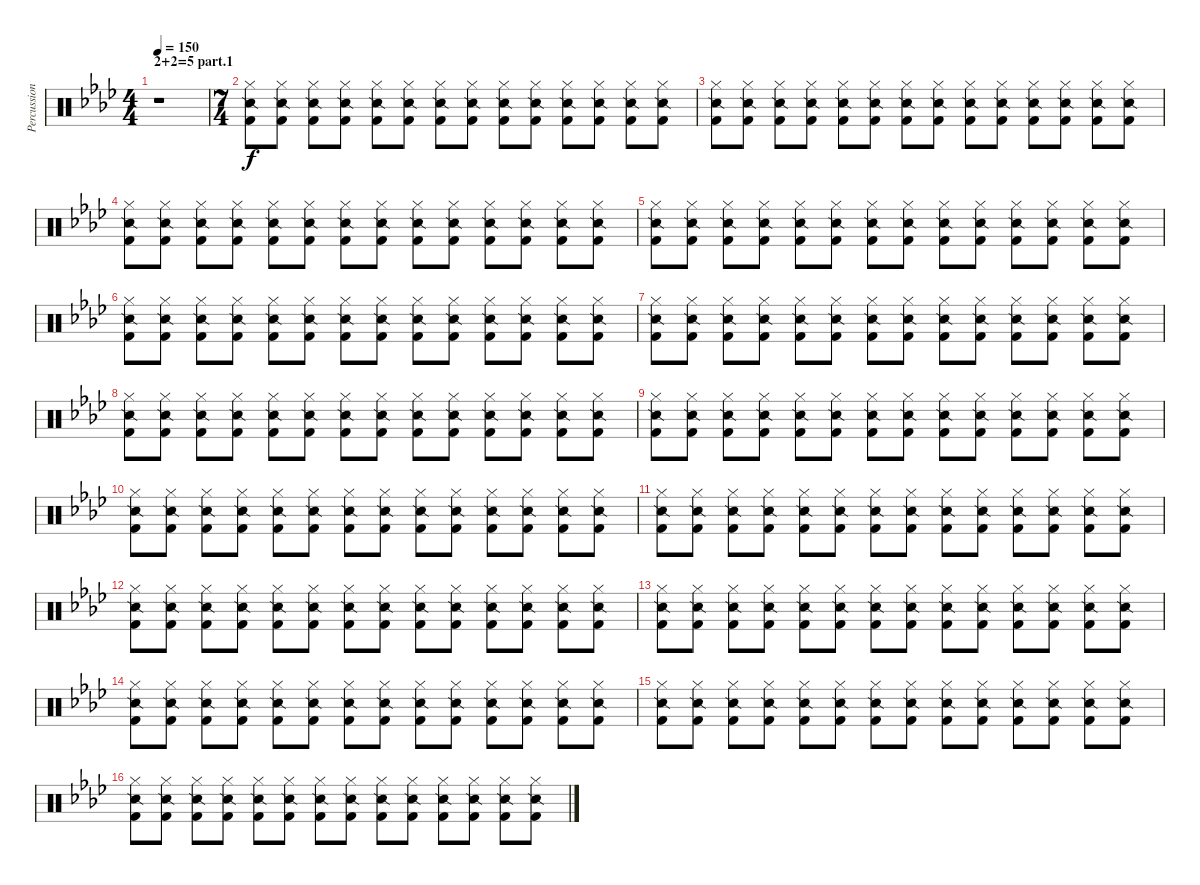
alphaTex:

\track ("Percussions 2" "Percussion") {instrument percussion}
\staff {score}
\articulation defaults
\ts (4 4)
\section ("" "2+2=5 part.1")
\tempo 150
\clef neutral
\ks ab
r.1{dy fff} |
\ts (7 4)
("Hi-Hat (closed)" "Snare (side stick) 2" "Kick (hit) 2").8{dy f} ("Hi-Hat (closed)" "Snare (side stick) 2" "Kick (hit) 2").8 ("Hi-Hat (closed)" "Snare (side stick) 2" "Kick (hit) 2").8 ("Hi-Hat (closed)" "Snare (side stick) 2" "Kick (hit) 2").8 ("Hi-Hat (closed)" "Snare (side stick) 2" "Kick (hit) 2").8 ("Hi-Hat (closed)" "Snare (side stick) 2" "Kick (hit) 2").8 ("Hi-Hat (closed)" "Snare (side stick) 2" "Kick (hit) 2").8 ("Hi-Hat (closed)" "Snare (side stick) 2" "Kick (hit) 2").8 ("Hi-Hat (closed)" "Snare (side stick) 2" "Kick (hit) 2").8 ("Hi-Hat (closed)" "Snare (side stick) 2" "Kick (hit) 2").8 ("Hi-Hat (closed)" "Snare (side stick) 2" "Kick (hit) 2").8 ("Hi-Hat (closed)" "Snare (side stick) 2" "Kick (hit) 2").8 ("Hi-Hat (closed)" "Snare (side stick) 2" "Kick (hit) 2").8 ("Hi-Hat (closed)" "Snare (side stick) 2" "Kick (hit) 2").8 |
("Hi-Hat (closed)" "Snare (side stick) 2" "Kick (hit) 2").8 ("Hi-Hat (closed)" "Snare (side stick) 2" "Kick (hit) 2").8 ("Hi-Hat (closed)" "Snare (side stick) 2" "Kick (hit) 2").8 ("Hi-Hat (closed)" "Snare (side stick) 2" "Kick (hit) 2").8 ("Hi-Hat (closed)" "Snare (side stick) 2" "Kick (hit) 2").8 ("Hi-Hat (closed)" "Snare (side stick) 2" "Kick (hit) 2").8 ("Hi-Hat (closed)" "Snare (side stick) 2" "Kick (hit) 2").8 ("Hi-Hat (closed)" "Snare (side stick) 2" "Kick (hit) 2").8 ("Hi-Hat (closed)" "Snare (side stick) 2" "Kick (hit) 2").8 ("Hi-Hat (closed)" "Snare (side stick) 2" "Kick (hit) 2").8 ("Hi-Hat (closed)" "Snare (side stick) 2" "Kick (hit) 2").8 ("Hi-Hat (closed)" "Snare (side stick) 2" "Kick (hit) 2").8 ("Hi-Hat (closed)" "Snare (side stick) 2" "Kick (hit) 2").8 ("Hi-Hat (closed)" "Snare (side stick) 2" "Kick (hit) 2").8 |
("Hi-Hat (closed)" "Snare (side stick) 2" "Kick (hit) 2").8 ("Hi-Hat (closed)" "Snare (side stick) 2" "Kick (hit) 2").8 ("Hi-Hat (closed)" "Snare (side stick) 2" "Kick (hit) 2").8 ("Hi-Hat (closed)" "Snare (side stick) 2" "Kick (hit) 2").8 ("Hi-Hat (closed)" "Snare (side stick) 2" "Kick (hit) 2").8 ("Hi-Hat (closed)" "Snare (side stick) 2" "Kick (hit) 2").8 ("Hi-Hat (closed)" "Snare (side stick) 2" "Kick (hit) 2").8 ("Hi-Hat (closed)" "Snare (side stick) 2" "Kick (hit) 2").8 ("Hi-Hat (closed)" "Snare (side stick) 2" "Kick (hit) 2").8 ("Hi-Hat (closed)" "Snare (side stick) 2" "Kick (hit) 2").8 ("Hi-Hat (closed)" "Snare (side stick) 2" "Kick (hit) 2").8 ("Hi-Hat (closed)" "Snare (side stick) 2" "Kick (hit) 2").8 ("Hi-Hat (closed)" "Snare (side stick) 2" "Kick (hit) 2").8 ("Hi-Hat (closed)" "Snare (side stick) 2" "Kick (hit) 2").8 |
("Hi-Hat (closed)" "Snare (side stick) 2" "Kick (hit) 2").8 ("Hi-Hat (closed)" "Snare (side stick) 2" "Kick (hit) 2").8 ("Hi-Hat (closed)" "Snare (side stick) 2" "Kick (hit) 2").8 ("Hi-Hat (closed)" "Snare (side stick) 2" "Kick (hit) 2").8 ("Hi-Hat (closed)" "Snare (side stick) 2" "Kick (hit) 2").8 ("Hi-Hat (closed)" "Snare (side stick) 2" "Kick (hit) 2").8 ("Hi-Hat (closed)" "Snare (side stick) 2" "Kick (hit) 2").8 ("Hi-Hat (closed)" "Snare (side stick) 2" "Kick (hit) 2").8 ("Hi-Hat (closed)" "Snare (side stick) 2" "Kick (hit) 2").8 ("Hi-Hat (closed)" "Snare (side stick) 2" "Kick (hit) 2").8 ("Hi-Hat (closed)" "Snare (side stick) 2" "Kick (hit) 2").8 ("Hi-Hat (closed)" "Snare (side stick) 2" "Kick (hit) 2").8 ("Hi-Hat (closed)" "Snare (side stick) 2" "Kick (hit) 2").8 ("Hi-Hat (closed)" "Snare (side stick) 2" "Kick (hit) 2").8 |
("Hi-Hat (closed)" "Snare (side stick) 2" "Kick (hit) 2").8 ("Hi-Hat (closed)" "Snare (side stick) 2" "Kick (hit) 2").8 ("Hi-Hat (closed)" "Snare (side stick) 2" "Kick (hit) 2").8 ("Hi-Hat (closed)" "Snare (side stick) 2" "Kick (hit) 2").8 ("Hi-Hat (closed)" "Snare (side stick) 2" "Kick (hit) 2").8 ("Hi-Hat (closed)" "Snare (side stick) 2" "Kick (hit) 2").8 ("Hi-Hat (closed)" "Snare (side stick) 2" "Kick (hit) 2").8 ("Hi-Hat (closed)" "Snare (side stick) 2" "Kick (hit) 2").8 ("Hi-Hat (closed)" "Snare (side stick) 2" "Kick (hit) 2").8 ("Hi-Hat (closed)" "Snare (side stick) 2" "Kick (hit) 2").8 ("Hi-Hat (closed)" "Snare (side stick) 2" "Kick (hit) 2").8 ("Hi-Hat (closed)" "Snare (side stick) 2" "Kick (hit) 2").8 ("Hi-Hat (closed)" "Snare (side stick) 2" "Kick (hit) 2").8 ("Hi-Hat (closed)" "Snare (side stick) 2" "Kick (hit) 2").8 |
("Hi-Hat (closed)" "Snare (side stick) 2" "Kick (hit) 2").8 ("Hi-Hat (closed)" "Snare (side stick) 2" "Kick (hit) 2").8 ("Hi-Hat (closed)" "Snare (side stick) 2" "Kick (hit) 2").8 ("Hi-Hat (closed)" "Snare (side stick) 2" "Kick (hit) 2").8 ("Hi-Hat (closed)" "Snare (side stick) 2" "Kick (hit) 2").8 ("Hi-Hat (closed)" "Snare (side stick) 2" "Kick (hit) 2").8 ("Hi-Hat (closed)" "Snare (side stick) 2" "Kick (hit) 2").8 ("Hi-Hat (closed)" "Snare (side stick) 2" "Kick (hit) 2").8 ("Hi-Hat (closed)" "Snare (side stick) 2" "Kick (hit) 2").8 ("Hi-Hat (closed)" "Snare (side stick) 2" "Kick (hit) 2").8 ("Hi-Hat (closed)" "Snare (side stick) 2" "Kick (hit) 2").8 ("Hi-Hat (closed)" "Snare (side stick) 2" "Kick (hit) 2").8 ("Hi-Hat (closed)" "Snare (side stick) 2" "Kick (hit) 2").8 ("Hi-Hat (closed)" "Snare (side stick) 2" "Kick (hit) 2").8 |
("Hi-Hat (closed)" "Snare (side stick) 2" "Kick (hit) 2").8 ("Hi-Hat (closed)" "Snare (side stick) 2" "Kick (hit) 2").8 ("Hi-Hat (closed)" "Snare (side stick) 2" "Kick (hit) 2").8 ("Hi-Hat (closed)" "Snare (side stick) 2" "Kick (hit) 2").8 ("Hi-Hat (closed)" "Snare (side stick) 2" "Kick (hit) 2").8 ("Hi-Hat (closed)" "Snare (side stick) 2" "Kick (hit) 2").8 ("Hi-Hat (closed)" "Snare (side stick) 2" "Kick (hit) 2").8 ("Hi-Hat (closed)" "Snare (side stick) 2" "Kick (hit) 2").8 ("Hi-Hat (closed)" "Snare (side stick) 2" "Kick (hit) 2").8 ("Hi-Hat (closed)" "Snare (side stick) 2" "Kick (hit) 2").8 ("Hi-Hat (closed)" "Snare (side stick) 2" "Kick (hit) 2").8 ("Hi-Hat (closed)" "Snare (side stick) 2" "Kick (hit) 2").8 ("Hi-Hat (closed)" "Snare (side stick) 2" "Kick (hit) 2").8 ("Hi-Hat (closed)" "Snare (side stick) 2" "Kick (hit) 2").8 |
("Hi-Hat (closed)" "Snare (side stick) 2" "Kick (hit) 2").8 ("Hi-Hat (closed)" "Snare (side stick) 2" "Kick (hit) 2").8 ("Hi-Hat (closed)" "Snare (side stick) 2" "Kick (hit) 2").8 ("Hi-Hat (closed)" "Snare (side stick) 2" "Kick (hit) 2").8 ("Hi-Hat (closed)" "Snare (side stick) 2" "Kick (hit) 2").8 ("Hi-Hat (closed)" "Snare (side stick) 2" "Kick (hit) 2").8 ("Hi-Hat (closed)" "Snare (side stick) 2" "Kick (hit) 2").8 ("Hi-Hat (closed)" "Snare (side stick) 2" "Kick (hit) 2").8 ("Hi-Hat (closed)" "Snare (side stick) 2" "Kick (hit) 2").8 ("Hi-Hat (closed)" "Snare (side stick) 2" "Kick (hit) 2").8 ("Hi-Hat (closed)" "Snare (side stick) 2" "Kick (hit) 2").8 ("Hi-Hat (closed)" "Snare (side stick) 2" "Kick (hit) 2").8 ("Hi-Hat (closed)" "Snare (side stick) 2" "Kick (hit) 2").8 ("Hi-Hat (closed)" "Snare (side stick) 2" "Kick (hit) 2").8 |
("Hi-Hat (closed)" "Snare (side stick) 2" "Kick (hit) 2").8 ("Hi-Hat (closed)" "Snare (side stick) 2" "Kick (hit) 2").8 ("Hi-Hat (closed)" "Snare (side stick) 2" "Kick (hit) 2").8 ("Hi-Hat (closed)" "Snare (side stick) 2" "Kick (hit) 2").8 ("Hi-Hat (closed)" "Snare (side stick) 2" "Kick (hit) 2").8 ("Hi-Hat (closed)" "Snare (side stick) 2" "Kick (hit) 2").8 ("Hi-Hat (closed)" "Snare (side stick) 2" "Kick (hit) 2").8 ("Hi-Hat (closed)" "Snare (side stick) 2" "Kick (hit) 2").8 ("Hi-Hat (closed)" "Snare (side stick) 2" "Kick (hit) 2").8 ("Hi-Hat (closed)" "Snare (side stick) 2" "Kick (hit) 2").8 ("Hi-Hat (closed)" "Snare (side stick) 2" "Kick (hit) 2").8 ("Hi-Hat (closed)" "Snare (side stick) 2" "Kick (hit) 2").8 ("Hi-Hat (closed)" "Snare (side stick) 2" "Kick (hit) 2").8 ("Hi-Hat (closed)" "Snare (side stick) 2" "Kick (hit) 2").8 |
("Hi-Hat (closed)" "Snare (side stick) 2" "Kick (hit) 2").8 ("Hi-Hat (closed)" "Snare (side stick) 2" "Kick (hit) 2").8 ("Hi-Hat (closed)" "Snare (side stick) 2" "Kick (hit) 2").8 ("Hi-Hat (closed)" "Snare (side stick) 2" "Kick (hit) 2").8 ("Hi-Hat (closed)" "Snare (side stick) 2" "Kick (hit) 2").8 ("Hi-Hat (closed)" "Snare (side stick) 2" "Kick (hit) 2").8 ("Hi-Hat (closed)" "Snare (side stick) 2" "Kick (hit) 2").8 ("Hi-Hat (closed)" "Snare (side stick) 2" "Kick (hit) 2").8 ("Hi-Hat (closed)" "Snare (side stick) 2" "Kick (hit) 2").8 ("Hi-Hat (closed)" "Snare (side stick) 2" "Kick (hit) 2").8 ("Hi-Hat (closed)" "Snare (side stick) 2" "Kick (hit) 2").8 ("Hi-Hat (closed)" "Snare (side stick) 2" "Kick (hit) 2").8 ("Hi-Hat (closed)" "Snare (side stick) 2" "Kick (hit) 2").8 ("Hi-Hat (closed)" "Snare (side stick) 2" "Kick (hit) 2").8 |
("Hi-Hat (closed)" "Snare (side stick) 2" "Kick (hit) 2").8 ("Hi-Hat (closed)" "Snare (side stick) 2" "Kick (hit) 2").8 ("Hi-Hat (closed)" "Snare (side stick) 2" "Kick (hit) 2").8 ("Hi-Hat (closed)" "Snare (side stick) 2" "Kick (hit) 2").8 ("Hi-Hat (closed)" "Snare (side stick) 2" "Kick (hit) 2").8 ("Hi-Hat (closed)" "Snare (side stick) 2" "Kick (hit) 2").8 ("Hi-Hat (closed)" "Snare (side stick) 2" "Kick (hit) 2").8 ("Hi-Hat (closed)" "Snare (side stick) 2" "Kick (hit) 2").8 ("Hi-Hat (closed)" "Snare (side stick) 2" "Kick (hit) 2").8 ("Hi-Hat (closed)" "Snare (side stick) 2" "Kick (hit) 2").8 ("Hi-Hat (closed)" "Snare (side stick) 2" "Kick (hit) 2").8 ("Hi-Hat (closed)" "Snare (side stick) 2" "Kick (hit) 2").8 ("Hi-Hat (closed)" "Snare (side stick) 2" "Kick (hit) 2").8 ("Hi-Hat (closed)" "Snare (side stick) 2" "Kick (hit) 2").8 |
("Hi-Hat (closed)" "Snare (side stick) 2" "Kick (hit) 2").8 ("Hi-Hat (closed)" "Snare (side stick) 2" "Kick (hit) 2").8 ("Hi-Hat (closed)" "Snare (side stick) 2" "Kick (hit) 2").8 ("Hi-Hat (closed)" "Snare (side stick) 2" "Kick (hit) 2").8 ("Hi-Hat (closed)" "Snare (side stick) 2" "Kick (hit) 2").8 ("Hi-Hat (closed)" "Snare (side stick) 2" "Kick (hit) 2").8 ("Hi-Hat (closed)" "Snare (side stick) 2" "Kick (hit) 2").8 ("Hi-Hat (closed)" "Snare (side stick) 2" "Kick (hit) 2").8 ("Hi-Hat (closed)" "Snare (side stick) 2" "Kick (hit) 2").8 ("Hi-Hat (closed)" "Snare (side stick) 2" "Kick (hit) 2").8 ("Hi-Hat (closed)" "Snare (side stick) 2" "Kick (hit) 2").8 ("Hi-Hat (closed)" "Snare (side stick) 2" "Kick (hit) 2").8 ("Hi-Hat (closed)" "Snare (side stick) 2" "Kick (hit) 2").8 ("Hi-Hat (closed)" "Snare (side stick) 2" "Kick (hit) 2").8 |
("Hi-Hat (closed)" "Snare (side stick) 2" "Kick (hit) 2").8 ("Hi-Hat (closed)" "Snare (side stick) 2" "Kick (hit) 2").8 ("Hi-Hat (closed)" "Snare (side stick) 2" "Kick (hit) 2").8 ("Hi-Hat (closed)" "Snare (side stick) 2" "Kick (hit) 2").8 ("Hi-Hat (closed)" "Snare (side stick) 2" "Kick (hit) 2").8 ("Hi-Hat (closed)" "Snare (side stick) 2" "Kick (hit) 2").8 ("Hi-Hat (closed)" "Snare (side stick) 2" "Kick (hit) 2").8 ("Hi-Hat (closed)" "Snare (side stick) 2" "Kick (hit) 2").8 ("Hi-Hat (closed)" "Snare (side stick) 2" "Kick (hit) 2").8 ("Hi-Hat (closed)" "Snare (side stick) 2" "Kick (hit) 2").8 ("Hi-Hat (closed)" "Snare (side stick) 2" "Kick (hit) 2").8 ("Hi-Hat (closed)" "Snare (side stick) 2" "Kick (hit) 2").8 ("Hi-Hat (closed)" "Snare (side stick) 2" "Kick (hit) 2").8 ("Hi-Hat (closed)" "Snare (side stick) 2" "Kick (hit) 2").8 |
("Hi-Hat (closed)" "Snare (side stick) 2" "Kick (hit) 2").8 ("Hi-Hat (closed)" "Snare (side stick) 2" "Kick (hit) 2").8 ("Hi-Hat (closed)" "Snare (side stick) 2" "Kick (hit) 2").8 ("Hi-Hat (closed)" "Snare (side stick) 2" "Kick (hit) 2").8 ("Hi-Hat (closed)" "Snare (side stick) 2" "Kick (hit) 2").8 ("Hi-Hat (closed)" "Snare (side stick) 2" "Kick (hit) 2").8 ("Hi-Hat (closed)" "Snare (side stick) 2" "Kick (hit) 2").8 ("Hi-Hat (closed)" "Snare (side stick) 2" "Kick (hit) 2").8 ("Hi-Hat (closed)" "Snare (side stick) 2" "Kick (hit) 2").8 ("Hi-Hat (closed)" "Snare (side stick) 2" "Kick (hit) 2").8 ("Hi-Hat (closed)" "Snare (side stick) 2" "Kick (hit) 2").8 ("Hi-Hat (closed)" "Snare (side stick) 2" "Kick (hit) 2").8 ("Hi-Hat (closed)" "Snare (side stick) 2" "Kick (hit) 2").8 ("Hi-Hat (closed)" "Snare (side stick) 2" "Kick (hit) 2").8 |
("Hi-Hat (closed)" "Snare (side stick) 2" "Kick (hit) 2").8 ("Hi-Hat (closed)" "Snare (side stick) 2" "Kick (hit) 2").8 ("Hi-Hat (closed)" "Snare (side stick) 2" "Kick (hit) 2").8 ("Hi-Hat (closed)" "Snare (side stick) 2" "Kick (hit) 2").8 ("Hi-Hat (closed)" "Snare (side stick) 2" "Kick (hit) 2").8 ("Hi-Hat (closed)" "Snare (side stick) 2" "Kick (hit) 2").8 ("Hi-Hat (closed)" "Snare (side stick) 2" "Kick (hit) 2").8 ("Hi-Hat (closed)" "Snare (side stick) 2" "Kick (hit) 2").8 ("Hi-Hat (closed)" "Snare (side stick) 2" "Kick (hit) 2").8 ("Hi-Hat (closed)" "Snare (side stick) 2" "Kick (hit) 2").8 ("Hi-Hat (closed)" "Snare (side stick) 2" "Kick (hit) 2").8 ("Hi-Hat (closed)" "Snare (side stick) 2" "Kick (hit) 2").8 ("Hi-Hat (closed)" "Snare (side stick) 2" "Kick (hit) 2").8 ("Hi-Hat (closed)" "Snare (side stick) 2" "Kick (hit) 2").8
